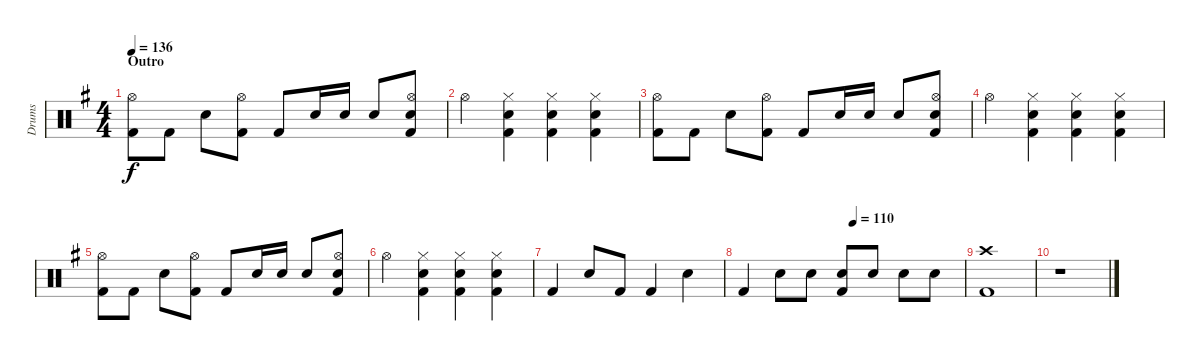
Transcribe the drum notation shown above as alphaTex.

\track ("Drums" "Drums") {instrument percussion}
\staff {score}
\articulation defaults
\ts (4 4)
\section ("" "Outro")
\tempo 136
\clef neutral
\ks g
("Kick (hit) 2" "Hi-Hat (open)").8{dy f} "Kick (hit) 2".8 "Snare (hit) 2".8 ("Kick (hit) 2" "Hi-Hat (open)").8 "Kick (hit) 2".8 "Snare (hit) 2".16 "Snare (hit) 2".16 "Snare (hit) 2".8 ("Snare (hit) 2" "Kick (hit) 2" "Hi-Hat (open)").8 |
"Hi-Hat (open)".4 ("Hi-Hat (closed)" "Snare (hit) 2" "Kick (hit) 2").4 ("Hi-Hat (closed)" "Kick (hit) 2" "Snare (hit) 2").4 ("Hi-Hat (closed)" "Kick (hit) 2" "Snare (hit) 2").4 |
("Kick (hit) 2" "Hi-Hat (open)").8 "Kick (hit) 2".8 "Snare (hit) 2".8 ("Kick (hit) 2" "Hi-Hat (open)").8 "Kick (hit) 2".8 "Snare (hit) 2".16 "Snare (hit) 2".16 "Snare (hit) 2".8 ("Snare (hit) 2" "Kick (hit) 2" "Hi-Hat (open)").8 |
"Hi-Hat (open)".4 ("Hi-Hat (closed)" "Snare (hit) 2" "Kick (hit) 2").4 ("Hi-Hat (closed)" "Kick (hit) 2" "Snare (hit) 2").4 ("Hi-Hat (closed)" "Kick (hit) 2" "Snare (hit) 2").4 |
("Kick (hit) 2" "Hi-Hat (open)").8 "Kick (hit) 2".8 "Snare (hit) 2".8 ("Kick (hit) 2" "Hi-Hat (open)").8 "Kick (hit) 2".8 "Snare (hit) 2".16 "Snare (hit) 2".16 "Snare (hit) 2".8 ("Snare (hit) 2" "Kick (hit) 2" "Hi-Hat (open)").8 |
"Hi-Hat (open)".4 ("Hi-Hat (closed)" "Snare (hit) 2" "Kick (hit) 2").4 ("Hi-Hat (closed)" "Kick (hit) 2" "Snare (hit) 2").4 ("Hi-Hat (closed)" "Kick (hit) 2" "Snare (hit) 2").4 |
"Kick (hit) 2".4 "Snare (hit) 2".8 "Kick (hit) 2".8 "Kick (hit) 2".4 "Snare (hit) 2".4 |
\tempo (110 0.5)
"Kick (hit) 2".4 "Snare (hit) 2".8 "Snare (hit) 2".8 ("Snare (hit) 2" "Kick (hit) 2").8 "Snare (hit) 2".8 "Snare (hit) 2".8 "Snare (hit) 2".8 |
("Kick (hit) 2" "Crash high (hit)").1 |
r.1
